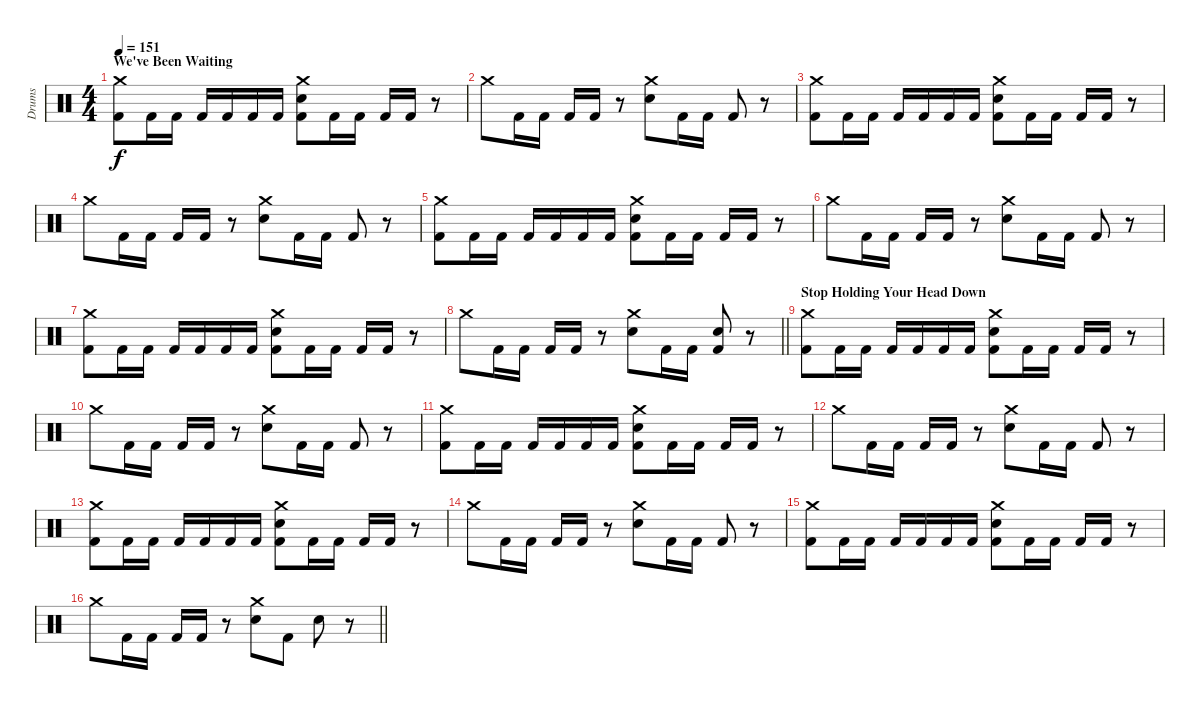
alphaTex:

\track ("Drums" "Drums") {instrument percussion}
\staff {score}
\articulation defaults
\ts (4 4)
\section ("" "We've Been Waiting")
\tempo 151
\clef neutral
\ks c
("Crash medium (hit)" "Kick (hit) 2").8{dy f} "Kick (hit) 2".16 "Kick (hit) 2".16 "Kick (hit) 2".16 "Kick (hit) 2".16 "Kick (hit) 2".16 "Kick (hit) 2".16 ("Crash medium (hit)" "Snare (hit) 2" "Kick (hit) 2").8 "Kick (hit) 2".16 "Kick (hit) 2".16 "Kick (hit) 2".16 "Kick (hit) 2".16 r.8 |
"Crash medium (hit)".8 "Kick (hit) 2".16 "Kick (hit) 2".16 "Kick (hit) 2".16 "Kick (hit) 2".16 r.8 ("Crash medium (hit)" "Snare (hit) 2").8 "Kick (hit) 2".16 "Kick (hit) 2".16 "Kick (hit) 2".8 r.8 |
("Crash medium (hit)" "Kick (hit) 2").8 "Kick (hit) 2".16 "Kick (hit) 2".16 "Kick (hit) 2".16 "Kick (hit) 2".16 "Kick (hit) 2".16 "Kick (hit) 2".16 ("Crash medium (hit)" "Snare (hit) 2" "Kick (hit) 2").8 "Kick (hit) 2".16 "Kick (hit) 2".16 "Kick (hit) 2".16 "Kick (hit) 2".16 r.8 |
"Crash medium (hit)".8 "Kick (hit) 2".16 "Kick (hit) 2".16 "Kick (hit) 2".16 "Kick (hit) 2".16 r.8 ("Crash medium (hit)" "Snare (hit) 2").8 "Kick (hit) 2".16 "Kick (hit) 2".16 "Kick (hit) 2".8 r.8 |
("Crash medium (hit)" "Kick (hit) 2").8 "Kick (hit) 2".16 "Kick (hit) 2".16 "Kick (hit) 2".16 "Kick (hit) 2".16 "Kick (hit) 2".16 "Kick (hit) 2".16 ("Crash medium (hit)" "Snare (hit) 2" "Kick (hit) 2").8 "Kick (hit) 2".16 "Kick (hit) 2".16 "Kick (hit) 2".16 "Kick (hit) 2".16 r.8 |
"Crash medium (hit)".8 "Kick (hit) 2".16 "Kick (hit) 2".16 "Kick (hit) 2".16 "Kick (hit) 2".16 r.8 ("Crash medium (hit)" "Snare (hit) 2").8 "Kick (hit) 2".16 "Kick (hit) 2".16 "Kick (hit) 2".8 r.8 |
("Crash medium (hit)" "Kick (hit) 2").8 "Kick (hit) 2".16 "Kick (hit) 2".16 "Kick (hit) 2".16 "Kick (hit) 2".16 "Kick (hit) 2".16 "Kick (hit) 2".16 ("Crash medium (hit)" "Snare (hit) 2" "Kick (hit) 2").8 "Kick (hit) 2".16 "Kick (hit) 2".16 "Kick (hit) 2".16 "Kick (hit) 2".16 r.8 |
\barLineRight lightlight "Crash medium (hit)".8 "Kick (hit) 2".16 "Kick (hit) 2".16 "Kick (hit) 2".16 "Kick (hit) 2".16
r.8 ("Crash medium (hit)" "Snare (hit) 2").8 "Kick (hit) 2".16 "Kick (hit) 2".16 ("Snare (hit) 2" "Kick (hit) 2").8 r.8 |
\section ("" "Stop Holding Your Head Down")
("Crash medium (hit)" "Kick (hit) 2").8 "Kick (hit) 2".16 "Kick (hit) 2".16 "Kick (hit) 2".16 "Kick (hit) 2".16 "Kick (hit) 2".16 "Kick (hit) 2".16 ("Crash medium (hit)" "Snare (hit) 2" "Kick (hit) 2").8 "Kick (hit) 2".16 "Kick (hit) 2".16 "Kick (hit) 2".16 "Kick (hit) 2".16 r.8 |
"Crash medium (hit)".8 "Kick (hit) 2".16 "Kick (hit) 2".16 "Kick (hit) 2".16 "Kick (hit) 2".16 r.8 ("Crash medium (hit)" "Snare (hit) 2").8 "Kick (hit) 2".16 "Kick (hit) 2".16 "Kick (hit) 2".8 r.8 |
("Crash medium (hit)" "Kick (hit) 2").8 "Kick (hit) 2".16 "Kick (hit) 2".16 "Kick (hit) 2".16 "Kick (hit) 2".16 "Kick (hit) 2".16 "Kick (hit) 2".16 ("Crash medium (hit)" "Snare (hit) 2" "Kick (hit) 2").8 "Kick (hit) 2".16 "Kick (hit) 2".16 "Kick (hit) 2".16 "Kick (hit) 2".16 r.8 |
"Crash medium (hit)".8 "Kick (hit) 2".16 "Kick (hit) 2".16 "Kick (hit) 2".16 "Kick (hit) 2".16 r.8 ("Crash medium (hit)" "Snare (hit) 2").8 "Kick (hit) 2".16 "Kick (hit) 2".16 "Kick (hit) 2".8 r.8 |
("Crash medium (hit)" "Kick (hit) 2").8 "Kick (hit) 2".16 "Kick (hit) 2".16 "Kick (hit) 2".16 "Kick (hit) 2".16 "Kick (hit) 2".16 "Kick (hit) 2".16 ("Crash medium (hit)" "Snare (hit) 2" "Kick (hit) 2").8 "Kick (hit) 2".16 "Kick (hit) 2".16 "Kick (hit) 2".16 "Kick (hit) 2".16 r.8 |
"Crash medium (hit)".8 "Kick (hit) 2".16 "Kick (hit) 2".16 "Kick (hit) 2".16 "Kick (hit) 2".16 r.8 ("Crash medium (hit)" "Snare (hit) 2").8 "Kick (hit) 2".16 "Kick (hit) 2".16 "Kick (hit) 2".8 r.8 |
("Crash medium (hit)" "Kick (hit) 2").8 "Kick (hit) 2".16 "Kick (hit) 2".16 "Kick (hit) 2".16 "Kick (hit) 2".16 "Kick (hit) 2".16 "Kick (hit) 2".16 ("Crash medium (hit)" "Snare (hit) 2" "Kick (hit) 2").8 "Kick (hit) 2".16 "Kick (hit) 2".16 "Kick (hit) 2".16 "Kick (hit) 2".16 r.8 |
\barLineRight lightlight "Crash medium (hit)".8 "Kick (hit) 2".16 "Kick (hit) 2".16 "Kick (hit) 2".16 "Kick (hit) 2".16
r.8 ("Crash medium (hit)" "Snare (hit) 2").8 "Kick (hit) 2".8 "Snare (hit) 2".8 r.8
